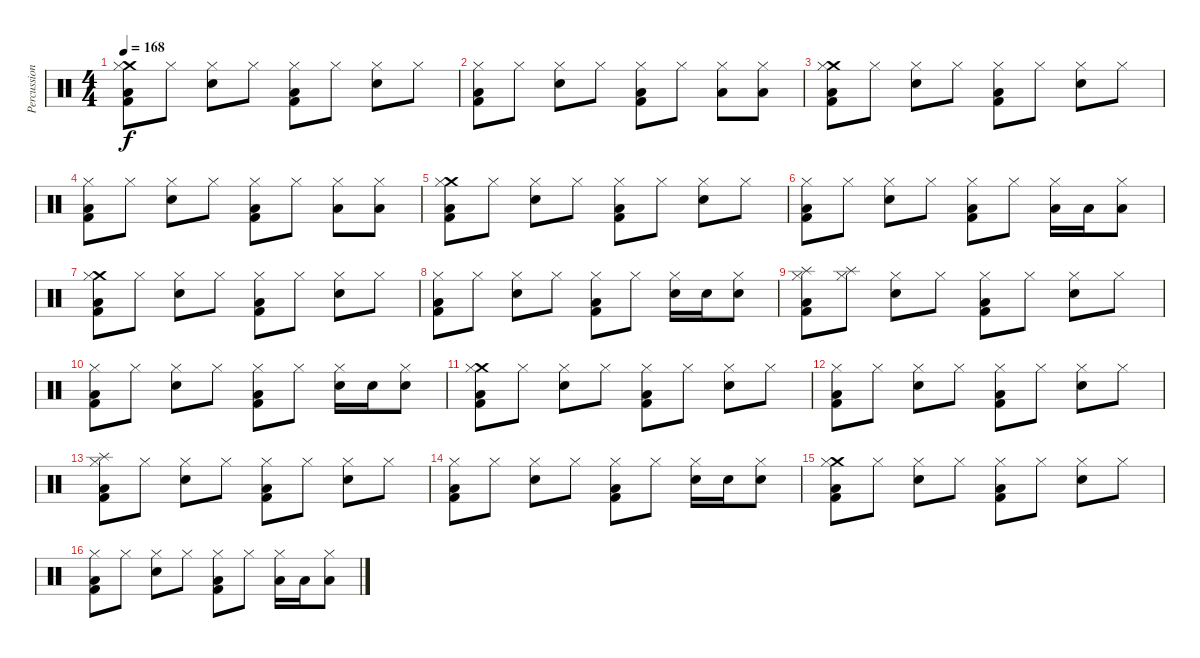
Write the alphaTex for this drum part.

\track ("Percussions" "Percussion") {instrument percussion}
\staff {score}
\articulation defaults
\ts (4 4)
\tempo 168
\clef neutral
\ks c
("Kick (hit) 2" "Low Floor Tom (hit)" "Crash medium (hit)" "Hi-Hat (closed)").8{dy f} "Hi-Hat (closed)".8 ("Snare (hit) 2" "Hi-Hat (closed)").8 "Hi-Hat (closed)".8 ("Kick (hit) 2" "Low Floor Tom (hit)" "Hi-Hat (closed)").8 "Hi-Hat (closed)".8 ("Snare (hit) 2" "Hi-Hat (closed)").8 "Hi-Hat (closed)".8 |
("Kick (hit) 2" "Low Floor Tom (hit)" "Hi-Hat (closed)").8 "Hi-Hat (closed)".8 ("Snare (hit) 2" "Hi-Hat (closed)").8 "Hi-Hat (closed)".8 ("Kick (hit) 2" "Low Floor Tom (hit)" "Hi-Hat (closed)").8 "Hi-Hat (closed)".8 ("Low Tom (hit)" "Hi-Hat (closed)").8 ("Low Tom (hit)" "Hi-Hat (closed)").8 |
("Kick (hit) 2" "Low Floor Tom (hit)" "Crash medium (hit)" "Hi-Hat (closed)").8 "Hi-Hat (closed)".8 ("Snare (hit) 2" "Hi-Hat (closed)").8 "Hi-Hat (closed)".8 ("Kick (hit) 2" "Low Floor Tom (hit)" "Hi-Hat (closed)").8 "Hi-Hat (closed)".8 ("Snare (hit) 2" "Hi-Hat (closed)").8 "Hi-Hat (closed)".8 |
("Kick (hit) 2" "Low Floor Tom (hit)" "Hi-Hat (closed)").8 "Hi-Hat (closed)".8 ("Snare (hit) 2" "Hi-Hat (closed)").8 "Hi-Hat (closed)".8 ("Kick (hit) 2" "Low Floor Tom (hit)" "Hi-Hat (closed)").8 "Hi-Hat (closed)".8 ("Low Tom (hit)" "Hi-Hat (closed)").8 ("Low Tom (hit)" "Hi-Hat (closed)").8 |
("Kick (hit) 2" "Low Floor Tom (hit)" "Crash medium (hit)" "Hi-Hat (closed)").8 "Hi-Hat (closed)".8 ("Snare (hit) 2" "Hi-Hat (closed)").8 "Hi-Hat (closed)".8 ("Kick (hit) 2" "Low Floor Tom (hit)" "Hi-Hat (closed)").8 "Hi-Hat (closed)".8 ("Snare (hit) 2" "Hi-Hat (closed)").8 "Hi-Hat (closed)".8 |
("Kick (hit) 2" "Low Floor Tom (hit)" "Hi-Hat (closed)").8 "Hi-Hat (closed)".8 ("Snare (hit) 2" "Hi-Hat (closed)").8 "Hi-Hat (closed)".8 ("Kick (hit) 2" "Low Floor Tom (hit)" "Hi-Hat (closed)").8 "Hi-Hat (closed)".8 ("Low Tom (hit)" "Hi-Hat (closed)").16 "Low Tom (hit)".16 ("Low Tom (hit)" "Hi-Hat (closed)").8 |
("Kick (hit) 2" "Low Floor Tom (hit)" "Crash medium (hit)" "Hi-Hat (closed)").8 "Hi-Hat (closed)".8 ("Snare (hit) 2" "Hi-Hat (closed)").8 "Hi-Hat (closed)".8 ("Kick (hit) 2" "Low Floor Tom (hit)" "Hi-Hat (closed)").8 "Hi-Hat (closed)".8 ("Snare (hit) 2" "Hi-Hat (closed)").8 "Hi-Hat (closed)".8 |
("Kick (hit) 2" "Low Floor Tom (hit)" "Hi-Hat (closed)").8 "Hi-Hat (closed)".8 ("Snare (hit) 2" "Hi-Hat (closed)").8 "Hi-Hat (closed)".8 ("Kick (hit) 2" "Low Floor Tom (hit)" "Hi-Hat (closed)").8 "Hi-Hat (closed)".8 ("Snare (hit) 2" "Hi-Hat (closed)").16 "Snare (hit) 2".16 ("Snare (hit) 2" "Hi-Hat (closed)").8 |
("Kick (hit) 2" "Low Floor Tom (hit)" "Splash (hit)" "Hi-Hat (closed)").8 ("Splash (hit)" "Hi-Hat (closed)").8 ("Snare (hit) 2" "Hi-Hat (closed)").8 "Hi-Hat (closed)".8 ("Kick (hit) 2" "Low Floor Tom (hit)" "Hi-Hat (closed)").8 "Hi-Hat (closed)".8 ("Snare (hit) 2" "Hi-Hat (closed)").8 "Hi-Hat (closed)".8 |
("Kick (hit) 2" "Low Floor Tom (hit)" "Hi-Hat (closed)").8 "Hi-Hat (closed)".8 ("Snare (hit) 2" "Hi-Hat (closed)").8 "Hi-Hat (closed)".8 ("Kick (hit) 2" "Low Floor Tom (hit)" "Hi-Hat (closed)").8 "Hi-Hat (closed)".8 ("Snare (hit) 2" "Hi-Hat (closed)").16 "Snare (hit) 2".16 ("Snare (hit) 2" "Hi-Hat (closed)").8 |
("Kick (hit) 2" "Low Floor Tom (hit)" "Crash medium (hit)" "Hi-Hat (closed)").8 "Hi-Hat (closed)".8 ("Snare (hit) 2" "Hi-Hat (closed)").8 "Hi-Hat (closed)".8 ("Kick (hit) 2" "Low Floor Tom (hit)" "Hi-Hat (closed)").8 "Hi-Hat (closed)".8 ("Snare (hit) 2" "Hi-Hat (closed)").8 "Hi-Hat (closed)".8 |
("Kick (hit) 2" "Low Floor Tom (hit)" "Hi-Hat (closed)").8 "Hi-Hat (closed)".8 ("Snare (hit) 2" "Hi-Hat (closed)").8 "Hi-Hat (closed)".8 ("Kick (hit) 2" "Low Floor Tom (hit)" "Hi-Hat (closed)").8 "Hi-Hat (closed)".8 ("Snare (hit) 2" "Hi-Hat (closed)").8 "Hi-Hat (closed)".8 |
("Kick (hit) 2" "Low Floor Tom (hit)" "Splash (hit)" "Hi-Hat (closed)").8 "Hi-Hat (closed)".8 ("Snare (hit) 2" "Hi-Hat (closed)").8 "Hi-Hat (closed)".8 ("Kick (hit) 2" "Low Floor Tom (hit)" "Hi-Hat (closed)").8 "Hi-Hat (closed)".8 ("Snare (hit) 2" "Hi-Hat (closed)").8 "Hi-Hat (closed)".8 |
("Kick (hit) 2" "Low Floor Tom (hit)" "Hi-Hat (closed)").8 "Hi-Hat (closed)".8 ("Snare (hit) 2" "Hi-Hat (closed)").8 "Hi-Hat (closed)".8 ("Kick (hit) 2" "Low Floor Tom (hit)" "Hi-Hat (closed)").8 "Hi-Hat (closed)".8 ("Snare (hit) 2" "Hi-Hat (closed)").16 "Snare (hit) 2".16 ("Snare (hit) 2" "Hi-Hat (closed)").8 |
("Kick (hit) 2" "Low Floor Tom (hit)" "Crash medium (hit)" "Hi-Hat (closed)").8 "Hi-Hat (closed)".8 ("Snare (hit) 2" "Hi-Hat (closed)").8 "Hi-Hat (closed)".8 ("Kick (hit) 2" "Low Floor Tom (hit)" "Hi-Hat (closed)").8 "Hi-Hat (closed)".8 ("Snare (hit) 2" "Hi-Hat (closed)").8 "Hi-Hat (closed)".8 |
("Kick (hit) 2" "Low Floor Tom (hit)" "Hi-Hat (closed)").8 "Hi-Hat (closed)".8 ("Snare (hit) 2" "Hi-Hat (closed)").8 "Hi-Hat (closed)".8 ("Kick (hit) 2" "Low Floor Tom (hit)" "Hi-Hat (closed)").8 "Hi-Hat (closed)".8 ("Low Tom (hit)" "Hi-Hat (closed)").16 "Low Tom (hit)".16 ("Low Tom (hit)" "Hi-Hat (closed)").8
